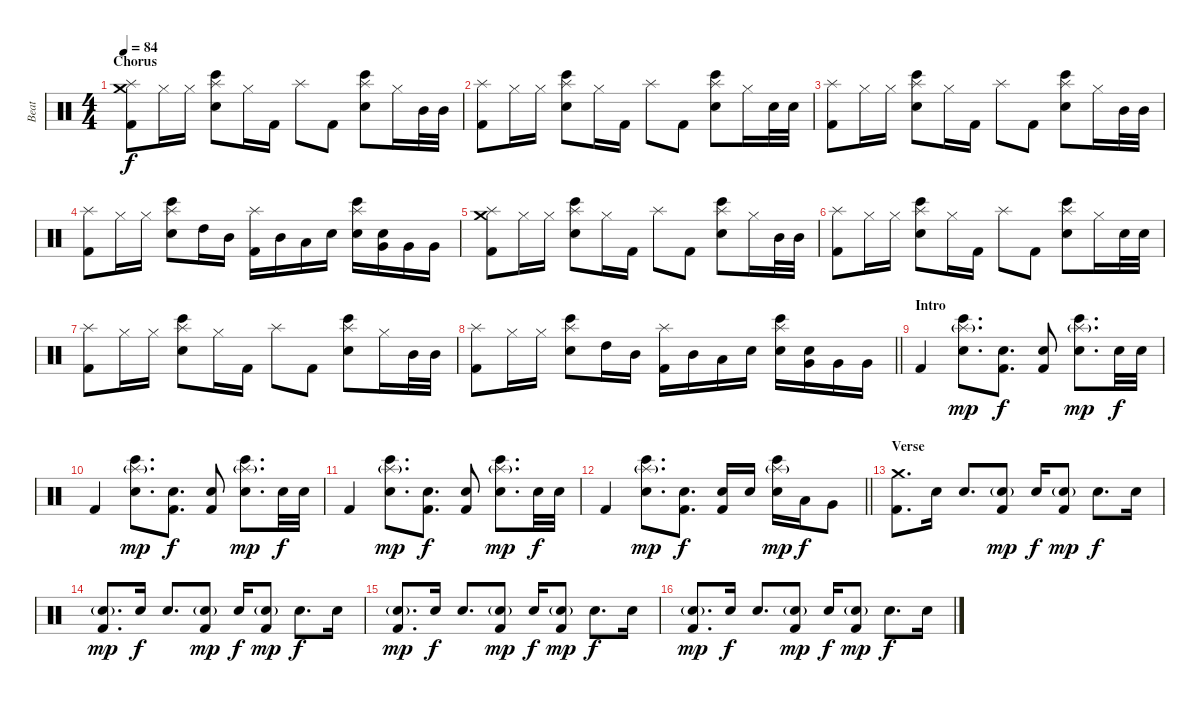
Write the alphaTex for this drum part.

\track ("Beat" "Beat") {instrument percussion}
\staff {score}
\articulation defaults
\ts (4 4)
\section ("" "Chorus")
\tempo 84
\clef neutral
\ks c
("Crash medium (hit)" "Splash (hit)" "Kick (hit) 2").8{dy f} "Hi-Hat (closed)".16 "Hi-Hat (closed)".16 ("Splash (hit)" "Snare (hit) 2" "Bongo High (hit)").8 "Hi-Hat (closed)".16 "Kick (hit) 2".16 "Splash (hit)".8 "Kick (hit) 2".8 ("Splash (hit)" "Snare (hit) 2" "Bongo High (hit)").8 "Hi-Hat (closed)".16 "Mid Tom (hit)".32 "Mid Tom (hit)".32 |
("Splash (hit)" "Kick (hit) 2").8 "Hi-Hat (closed)".16 "Hi-Hat (closed)".16 ("Splash (hit)" "Snare (hit) 2" "Bongo High (hit)").8 "Hi-Hat (closed)".16 "Kick (hit) 2".16 "Splash (hit)".8 "Kick (hit) 2".8 ("Splash (hit)" "Snare (hit) 2" "Bongo High (hit)").8 "Hi-Hat (closed)".16 "Snare (hit) 2".32 "Snare (hit) 2".32 |
("Splash (hit)" "Kick (hit) 2").8 "Hi-Hat (closed)".16 "Hi-Hat (closed)".16 ("Splash (hit)" "Snare (hit) 2" "Bongo High (hit)").8 "Hi-Hat (closed)".16 "Kick (hit) 2".16 "Splash (hit)".8 "Kick (hit) 2".8 ("Splash (hit)" "Snare (hit) 2" "Bongo High (hit)").8 "Hi-Hat (closed)".16 "Mid Tom (hit)".32 "Mid Tom (hit)".32 |
("Splash (hit)" "Kick (hit) 2").8 "Hi-Hat (closed)".16 "Hi-Hat (closed)".16 ("Splash (hit)" "Snare (hit) 2" "Bongo High (hit)").8 "High Tom (hit)".16 "Mid Tom (hit)".16 ("Splash (hit)" "Kick (hit) 2").16 "Mid Tom (hit)".16 "Low Tom (hit)".16 "Snare (hit) 2".16 ("Splash (hit)" "Snare (hit) 2" "Bongo High (hit)").16 ("Snare (hit) 2" "Very Low Tom (hit)").16 "Very Low Tom (hit)".16 "Very Low Tom (hit)".16 |
("Crash medium (hit)" "Splash (hit)" "Kick (hit) 2").8 "Hi-Hat (closed)".16 "Hi-Hat (closed)".16 ("Splash (hit)" "Snare (hit) 2" "Bongo High (hit)").8 "Hi-Hat (closed)".16 "Kick (hit) 2".16 "Splash (hit)".8 "Kick (hit) 2".8 ("Splash (hit)" "Snare (hit) 2" "Bongo High (hit)").8 "Hi-Hat (closed)".16 "Mid Tom (hit)".32 "Mid Tom (hit)".32 |
("Splash (hit)" "Kick (hit) 2").8 "Hi-Hat (closed)".16 "Hi-Hat (closed)".16 ("Splash (hit)" "Snare (hit) 2" "Bongo High (hit)").8 "Hi-Hat (closed)".16 "Kick (hit) 2".16 "Splash (hit)".8 "Kick (hit) 2".8 ("Splash (hit)" "Snare (hit) 2" "Bongo High (hit)").8 "Hi-Hat (closed)".16 "Snare (hit) 2".32 "Snare (hit) 2".32 |
("Splash (hit)" "Kick (hit) 2").8 "Hi-Hat (closed)".16 "Hi-Hat (closed)".16 ("Splash (hit)" "Snare (hit) 2" "Bongo High (hit)").8 "Hi-Hat (closed)".16 "Kick (hit) 2".16 "Splash (hit)".8 "Kick (hit) 2".8 ("Splash (hit)" "Snare (hit) 2" "Bongo High (hit)").8 "Hi-Hat (closed)".16 "Mid Tom (hit)".32 "Mid Tom (hit)".32 |
\barLineRight lightlight
("Splash (hit)" "Kick (hit) 2").8 "Hi-Hat (closed)".16 "Hi-Hat (closed)".16 ("Splash (hit)" "Snare (hit) 2" "Bongo High (hit)").8 "High Tom (hit)".16 "Mid Tom (hit)".16 ("Splash (hit)" "Kick (hit) 2").16 "Mid Tom (hit)".16 "Low Tom (hit)".16 "Snare (hit) 2".16 ("Splash (hit)" "Snare (hit) 2" "Bongo High (hit)").16 ("Snare (hit) 2" "Very Low Tom (hit)").16 "Very Low Tom (hit)".16 "Very Low Tom (hit)".16 |
\section ("" "Intro")
"Kick (hit) 2".4 ("Splash (hit)"{g} "Snare (hit) 2" "Bongo High (hit)").8{d dy mp} ("Snare (hit) 2" "Kick (hit) 2").8{d dy f} ("Snare (hit) 2" "Kick (hit) 2").8 ("Splash (hit)"{g} "Snare (hit) 2" "Bongo High (hit)").8{d dy mp} "Snare (hit) 2".32{dy f} "Snare (hit) 2".32 |
"Kick (hit) 2".4 ("Splash (hit)"{g} "Snare (hit) 2" "Bongo High (hit)").8{d dy mp} ("Snare (hit) 2" "Kick (hit) 2").8{d dy f} ("Snare (hit) 2" "Kick (hit) 2").8 ("Splash (hit)"{g} "Snare (hit) 2" "Bongo High (hit)").8{d dy mp} "Snare (hit) 2".32{dy f} "Snare (hit) 2".32 |
"Kick (hit) 2".4 ("Splash (hit)"{g} "Snare (hit) 2" "Bongo High (hit)").8{d dy mp} ("Snare (hit) 2" "Kick (hit) 2").8{d dy f} ("Snare (hit) 2" "Kick (hit) 2").8 ("Splash (hit)"{g} "Snare (hit) 2" "Bongo High (hit)").8{d dy mp} "Snare (hit) 2".32{dy f} "Snare (hit) 2".32 |
\barLineRight lightlight "Kick (hit) 2".4
("Splash (hit)"{g} "Snare (hit) 2" "Bongo High (hit)").8{d dy mp} ("Snare (hit) 2" "Kick (hit) 2").8{d dy f} ("Snare (hit) 2" "Kick (hit) 2").16 "Snare (hit) 2".16 ("Splash (hit)"{g} "Snare (hit) 2" "Bongo High (hit)").16{dy mp} "Low Tom (hit)".16{dy f} "Very Low Tom (hit)".8 |
\section ("" "Verse")
("Crash medium (hit)" "Kick (hit) 2").8{d} "Snare (hit) 2".16 "Snare (hit) 2".8{d} ("Snare (hit) 2"{g} "Kick (hit) 2").8{dy mp} "Snare (hit) 2".16{dy f} ("Snare (hit) 2"{g} "Kick (hit) 2").8{dy mp} "Snare (hit) 2".8{d dy f} "Snare (hit) 2".16 |
("Snare (hit) 2"{g} "Kick (hit) 2").8{d dy mp} "Snare (hit) 2".16{dy f} "Snare (hit) 2".8{d} ("Snare (hit) 2"{g} "Kick (hit) 2").8{dy mp} "Snare (hit) 2".16{dy f} ("Snare (hit) 2"{g} "Kick (hit) 2").8{dy mp} "Snare (hit) 2".8{d dy f} "Snare (hit) 2".16 |
("Snare (hit) 2"{g} "Kick (hit) 2").8{d dy mp} "Snare (hit) 2".16{dy f} "Snare (hit) 2".8{d} ("Snare (hit) 2"{g} "Kick (hit) 2").8{dy mp} "Snare (hit) 2".16{dy f} ("Snare (hit) 2"{g} "Kick (hit) 2").8{dy mp} "Snare (hit) 2".8{d dy f} "Snare (hit) 2".16 |
("Snare (hit) 2"{g} "Kick (hit) 2").8{d dy mp} "Snare (hit) 2".16{dy f} "Snare (hit) 2".8{d} ("Snare (hit) 2"{g} "Kick (hit) 2").8{dy mp} "Snare (hit) 2".16{dy f} ("Snare (hit) 2"{g} "Kick (hit) 2").8{dy mp} "Snare (hit) 2".8{d dy f} "Snare (hit) 2".16
